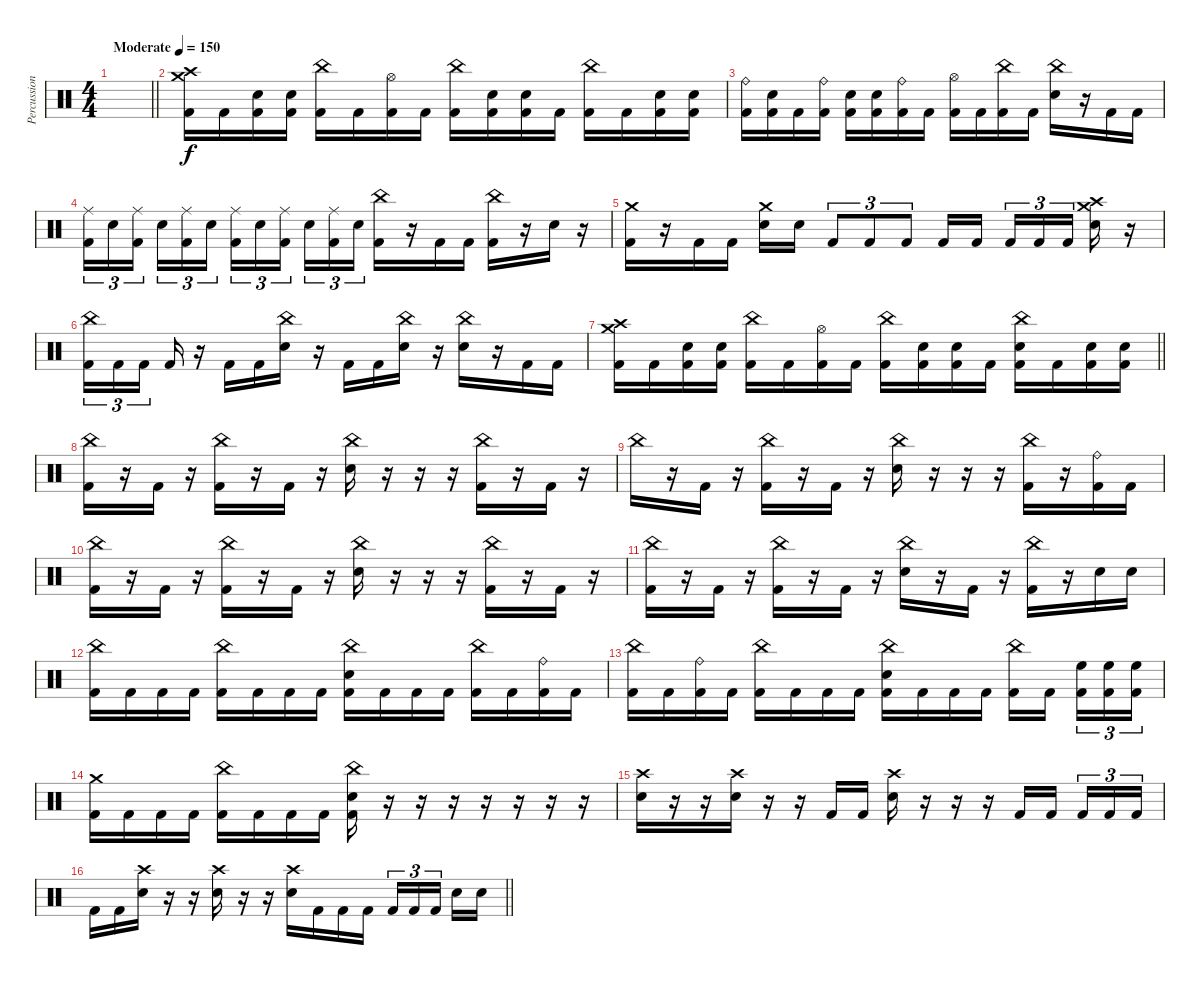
\track ("Percussion" "Percussion") {instrument percussion}
\staff {score}
\articulation defaults
\ts (4 4)
\tempo (150 "Moderate")
\clef neutral
\barLineRight lightlight
\ks c
|
("Crash high (hit)" "Crash medium (hit)" "Kick (hit) 2").16 "Kick (hit) 2".16 ("Electric Snare (hit)" "Kick (hit) 2").16 ("Electric Snare (hit)" "Kick (hit) 2").16 ("China (hit)" "Kick (hit) 2").16 "Kick (hit) 2".16 ("Hi-Hat (open)" "Kick (hit) 2").16 "Kick (hit) 2".16 ("China (hit)" "Kick (hit) 2").16 ("Electric Snare (hit)" "Kick (hit) 2").16 ("Electric Snare (hit)" "Kick (hit) 2").16 "Kick (hit) 2".16 ("China (hit)" "Kick (hit) 2").16 "Kick (hit) 2".16 ("Electric Snare (hit)" "Kick (hit) 2").16 ("Electric Snare (hit)" "Kick (hit) 2").16 |
("Ride (bell)" "Kick (hit) 2").16 ("Electric Snare (hit)" "Kick (hit) 2").16 "Kick (hit) 2".16 ("Ride (bell)" "Kick (hit) 2").16 ("Electric Snare (hit)" "Kick (hit) 2").16 ("Electric Snare (hit)" "Kick (hit) 2").16 ("Ride (bell)" "Kick (hit) 2").16 "Kick (hit) 2".16 ("Hi-Hat (open)" "Kick (hit) 2").16 "Kick (hit) 2".16 ("China (hit)" "Kick (hit) 2").16 "Kick (hit) 2".16 ("China (hit)" "Electric Snare (hit)").16 r.16 "Kick (hit) 2".16 "Kick (hit) 2".16 |
("Ride (middle)" "Kick (hit) 2").16{tu (3 2)} "Electric Snare (hit)".16{tu (3 2)} ("Ride (middle)" "Kick (hit) 2").16{tu (3 2) beam splitsecondary} "Electric Snare (hit)".16{tu (3 2)} ("Ride (middle)" "Kick (hit) 2").16{tu (3 2)} "Electric Snare (hit)".16{tu (3 2)} ("Ride (middle)" "Kick (hit) 2").16{tu (3 2)} "Electric Snare (hit)".16{tu (3 2)} ("Ride (middle)" "Kick (hit) 2").16{tu (3 2) beam splitsecondary} "Electric Snare (hit)".16{tu (3 2)} ("Ride (middle)" "Kick (hit) 2").16{tu (3 2)} "Electric Snare (hit)".16{tu (3 2)} ("China (hit)" "Kick (hit) 2").16 r.16 "Kick (hit) 2".16 "Kick (hit) 2".16 ("China (hit)" "Kick (hit) 2").16 r.16 "Electric Snare (hit)".16 r.16 |
("Crash medium (hit)" "Kick (hit) 2").16 r.16 "Kick (hit) 2".16 "Kick (hit) 2".16 ("Crash medium (hit)" "Electric Snare (hit)").16 "Electric Snare (hit)".16 "Kick (hit) 2".8{tu (3 2)} "Kick (hit) 2".8{tu (3 2)} "Kick (hit) 2".8{tu (3 2)} "Kick (hit) 2".16 "Kick (hit) 2".16 "Kick (hit) 2".16{tu (3 2)} "Kick (hit) 2".16{tu (3 2)} "Kick (hit) 2".16{tu (3 2) beam splitsecondary} ("Crash high (hit)" "Crash medium (hit)" "Electric Snare (hit)").16 r.16 |
("China (hit)" "Kick (hit) 2").16{tu (3 2)} "Kick (hit) 2".16{tu (3 2)} "Kick (hit) 2".16{tu (3 2) beam splitsecondary} "Kick (hit) 2".16 r.16 "Kick (hit) 2".16 "Kick (hit) 2".16 ("China (hit)" "Electric Snare (hit)").16 r.16 "Kick (hit) 2".16 "Kick (hit) 2".16 ("China (hit)" "Electric Snare (hit)").16 r.16 ("China (hit)" "Electric Snare (hit)").16 r.16 "Kick (hit) 2".16 "Kick (hit) 2".16 |
\barLineRight lightlight
("Crash high (hit)" "Crash medium (hit)" "Kick (hit) 2").16 "Kick (hit) 2".16 ("Electric Snare (hit)" "Kick (hit) 2").16 ("Electric Snare (hit)" "Kick (hit) 2").16 ("China (hit)" "Kick (hit) 2").16 "Kick (hit) 2".16 ("Hi-Hat (open)" "Kick (hit) 2").16 "Kick (hit) 2".16 ("China (hit)" "Kick (hit) 2").16 ("Electric Snare (hit)" "Kick (hit) 2").16 ("Electric Snare (hit)" "Kick (hit) 2").16 "Kick (hit) 2".16 ("China (hit)" "Electric Snare (hit)" "Kick (hit) 2").16 "Kick (hit) 2".16 ("Electric Snare (hit)" "Kick (hit) 2").16 ("Electric Snare (hit)" "Kick (hit) 2").16 |
("China (hit)" "Kick (hit) 2").16 r.16 "Kick (hit) 2".16 r.16 ("China (hit)" "Kick (hit) 2").16 r.16 "Kick (hit) 2".16 r.16 ("China (hit)" "Electric Snare (hit)").16 r.16 r.16 r.16 ("China (hit)" "Kick (hit) 2").16 r.16 "Kick (hit) 2".16 r.16 |
"China (hit)".16 r.16 "Kick (hit) 2".16 r.16 ("China (hit)" "Kick (hit) 2").16 r.16 "Kick (hit) 2".16 r.16 ("China (hit)" "Electric Snare (hit)").16 r.16 r.16 r.16 ("China (hit)" "Kick (hit) 2").16 r.16 ("Ride (bell)" "Kick (hit) 2").16 "Kick (hit) 2".16 |
("China (hit)" "Kick (hit) 2").16 r.16 "Kick (hit) 2".16 r.16 ("China (hit)" "Kick (hit) 2").16 r.16 "Kick (hit) 2".16 r.16 ("China (hit)" "Electric Snare (hit)").16 r.16 r.16 r.16 ("China (hit)" "Kick (hit) 2").16 r.16 "Kick (hit) 2".16 r.16 |
("China (hit)" "Kick (hit) 2").16 r.16 "Kick (hit) 2".16 r.16 ("China (hit)" "Kick (hit) 2").16 r.16 "Kick (hit) 2".16 r.16 ("China (hit)" "Electric Snare (hit)").16 r.16 "Kick (hit) 2".16 r.16 ("China (hit)" "Kick (hit) 2").16 r.16 "Electric Snare (hit)".16 "Electric Snare (hit)".16 |
("China (hit)" "Kick (hit) 2").16 "Kick (hit) 2".16 "Kick (hit) 2".16 "Kick (hit) 2".16 ("China (hit)" "Kick (hit) 2").16 "Kick (hit) 2".16 "Kick (hit) 2".16 "Kick (hit) 2".16 ("China (hit)" "Electric Snare (hit)" "Kick (hit) 2").16 "Kick (hit) 2".16 "Kick (hit) 2".16 "Kick (hit) 2".16 ("China (hit)" "Kick (hit) 2").16 "Kick (hit) 2".16 ("Ride (bell)" "Kick (hit) 2").16 "Kick (hit) 2".16 |
("China (hit)" "Kick (hit) 2").16 "Kick (hit) 2".16 ("Ride (bell)" "Kick (hit) 2").16 "Kick (hit) 2".16 ("China (hit)" "Kick (hit) 2").16 "Kick (hit) 2".16 "Kick (hit) 2".16 "Kick (hit) 2".16 ("China (hit)" "Electric Snare (hit)" "Kick (hit) 2").16 "Kick (hit) 2".16 "Kick (hit) 2".16 "Kick (hit) 2".16 ("China (hit)" "Kick (hit) 2").16 "Kick (hit) 2".16{beam splitsecondary} ("High Floor Tom (hit)" "Kick (hit) 2").16{tu (3 2)} ("High Floor Tom (hit)" "Kick (hit) 2").16{tu (3 2)} ("High Floor Tom (hit)" "Kick (hit) 2").16{tu (3 2)} |
("Crash medium (hit)" "Kick (hit) 2").16 "Kick (hit) 2".16 "Kick (hit) 2".16 "Kick (hit) 2".16 ("China (hit)" "Kick (hit) 2").16 "Kick (hit) 2".16 "Kick (hit) 2".16 "Kick (hit) 2".16 ("China (hit)" "Electric Snare (hit)" "Kick (hit) 2").16 r.16 r.16 r.16 r.16 r.16 r.16 r.16 |
("Crash high (hit)" "Electric Snare (hit)").16 r.16 r.16 ("Crash high (hit)" "Electric Snare (hit)").16 r.16 r.16 "Kick (hit) 2".16 "Kick (hit) 2".16 ("Crash high (hit)" "Electric Snare (hit)").16 r.16 r.16 r.16 "Kick (hit) 2".16 "Kick (hit) 2".16{beam splitsecondary} "Kick (hit) 2".16{tu (3 2)} "Kick (hit) 2".16{tu (3 2)} "Kick (hit) 2".16{tu (3 2)} |
\barLineRight lightlight "Kick (hit) 2".16 "Kick (hit) 2".16
("Crash high (hit)" "Electric Snare (hit)").16 r.16 r.16 ("Crash high (hit)" "Electric Snare (hit)").16 r.16 r.16 ("Crash high (hit)" "Electric Snare (hit)").16 "Kick (hit) 2".16 "Kick (hit) 2".16 "Kick (hit) 2".16 "Kick (hit) 2".16{tu (3 2)} "Kick (hit) 2".16{tu (3 2)} "Kick (hit) 2".16{tu (3 2) beam splitsecondary} "Electric Snare (hit)".16 "Electric Snare (hit)".16
